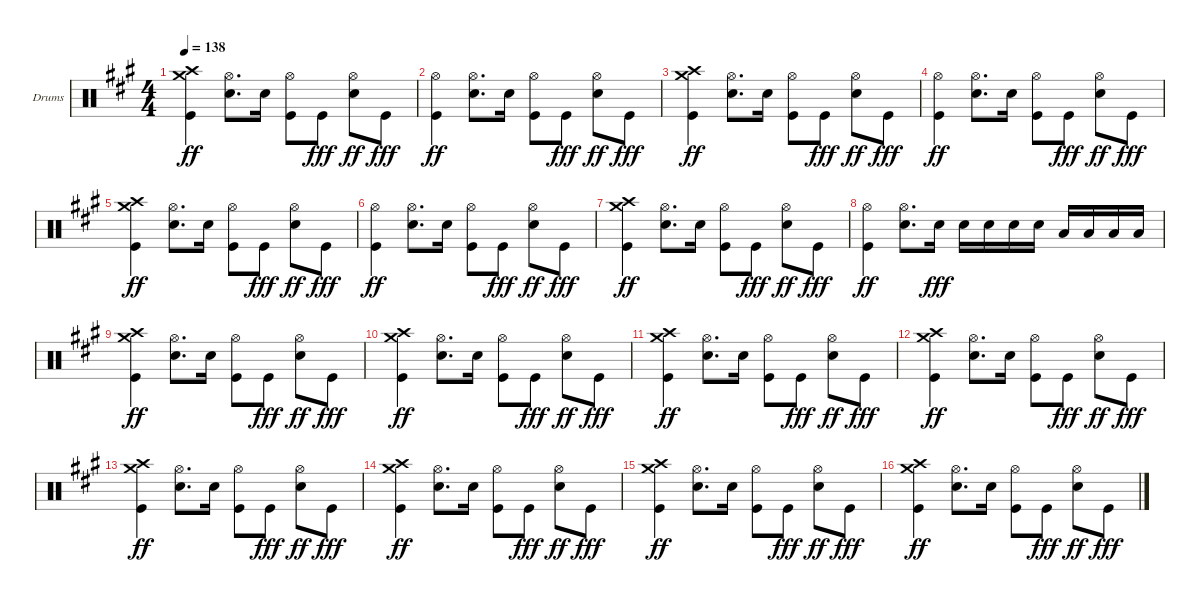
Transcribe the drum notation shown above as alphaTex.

\defaultSystemsLayout 4
\bracketExtendMode groupsimilarinstruments
\firstSystemTrackNameOrientation horizontal
\otherSystemsTrackNameOrientation horizontal
\track ("Drumkit" "Drums") {instrument percussion}
\staff {score}
\articulation defaults
\ts (4 4)
\tempo 138
\clef neutral
\scale
1.05801
\ks a
("Crash high (hit)" "Crash medium (hit)" "Kick (hit)").4{dy ff} ("Hi-Hat (open)" "Snare (hit) 2").8{d} "Snare (hit) 2".16 ("Hi-Hat (open)" "Kick (hit)").8 "Kick (hit)".8{dy fff} ("Hi-Hat (open)" "Snare (hit) 2").8{dy ff} "Kick (hit)".8{dy fff} |
\scale
0.941992 ("Hi-Hat (open)" "Kick (hit)").4{dy ff} ("Hi-Hat (open)" "Snare (hit) 2").8{d} "Snare (hit) 2".16 ("Hi-Hat (open)" "Kick (hit)").8 "Kick (hit)".8{dy fff} ("Hi-Hat (open)" "Snare (hit) 2").8{dy ff} "Kick (hit)".8{dy fff} |
\scale
1.05801 ("Crash high (hit)" "Crash medium (hit)" "Kick (hit)").4{dy ff} ("Hi-Hat (open)" "Snare (hit) 2").8{d} "Snare (hit) 2".16 ("Hi-Hat (open)" "Kick (hit)").8 "Kick (hit)".8{dy fff} ("Hi-Hat (open)" "Snare (hit) 2").8{dy ff} "Kick (hit)".8{dy fff} |
\scale
0.941992 ("Hi-Hat (open)" "Kick (hit)").4{dy ff} ("Hi-Hat (open)" "Snare (hit) 2").8{d} "Snare (hit) 2".16 ("Hi-Hat (open)" "Kick (hit)").8 "Kick (hit)".8{dy fff} ("Hi-Hat (open)" "Snare (hit) 2").8{dy ff} "Kick (hit)".8{dy fff} |
\scale
1.05801 ("Crash high (hit)" "Crash medium (hit)" "Kick (hit)").4{dy ff} ("Hi-Hat (open)" "Snare (hit) 2").8{d} "Snare (hit) 2".16 ("Hi-Hat (open)" "Kick (hit)").8 "Kick (hit)".8{dy fff} ("Hi-Hat (open)" "Snare (hit) 2").8{dy ff} "Kick (hit)".8{dy fff} |
\scale
0.941992 ("Hi-Hat (open)" "Kick (hit)").4{dy ff} ("Hi-Hat (open)" "Snare (hit) 2").8{d} "Snare (hit) 2".16 ("Hi-Hat (open)" "Kick (hit)").8 "Kick (hit)".8{dy fff} ("Hi-Hat (open)" "Snare (hit) 2").8{dy ff} "Kick (hit)".8{dy fff} |
\scale
1.05801 ("Crash high (hit)" "Crash medium (hit)" "Kick (hit)").4{dy ff} ("Hi-Hat (open)" "Snare (hit) 2").8{d} "Snare (hit) 2".16 ("Hi-Hat (open)" "Kick (hit)").8 "Kick (hit)".8{dy fff} ("Hi-Hat (open)" "Snare (hit) 2").8{dy ff} "Kick (hit)".8{dy fff} |
\scale
0.941992 ("Hi-Hat (open)" "Kick (hit)").4{dy ff} ("Hi-Hat (open)" "Snare (hit) 2").8{d} "Snare (hit) 2".16{dy fff} "Snare (hit) 2".16 "Snare (hit) 2".16 "Snare (hit) 2".16 "Snare (hit) 2".16 "Low Tom (hit)".16 "Low Tom (hit)".16 "Low Tom (hit)".16 "Low Tom (hit)".16 |
\scale
1.05801 ("Crash medium (hit)" "Crash high (hit)" "Kick (hit)").4{dy ff} ("Hi-Hat (open)" "Snare (hit) 2").8{d} "Snare (hit) 2".16 ("Hi-Hat (open)" "Kick (hit)").8 "Kick (hit)".8{dy fff} ("Hi-Hat (open)" "Snare (hit) 2").8{dy ff} "Kick (hit)".8{dy fff} |
\scale
0.941992 ("Crash medium (hit)" "Crash high (hit)" "Kick (hit)").4{dy ff} ("Hi-Hat (open)" "Snare (hit) 2").8{d} "Snare (hit) 2".16 ("Hi-Hat (open)" "Kick (hit)").8 "Kick (hit)".8{dy fff} ("Hi-Hat (open)" "Snare (hit) 2").8{dy ff} "Kick (hit)".8{dy fff} |
\scale
1.05801 ("Crash medium (hit)" "Crash high (hit)" "Kick (hit)").4{dy ff} ("Hi-Hat (open)" "Snare (hit) 2").8{d} "Snare (hit) 2".16 ("Hi-Hat (open)" "Kick (hit)").8 "Kick (hit)".8{dy fff} ("Hi-Hat (open)" "Snare (hit) 2").8{dy ff} "Kick (hit)".8{dy fff} |
\scale
0.941992 ("Crash medium (hit)" "Crash high (hit)" "Kick (hit)").4{dy ff} ("Hi-Hat (open)" "Snare (hit) 2").8{d} "Snare (hit) 2".16 ("Hi-Hat (open)" "Kick (hit)").8 "Kick (hit)".8{dy fff} ("Hi-Hat (open)" "Snare (hit) 2").8{dy ff} "Kick (hit)".8{dy fff} |
\scale
1.05801 ("Crash high (hit)" "Crash medium (hit)" "Kick (hit)").4{dy ff} ("Hi-Hat (open)" "Snare (hit) 2").8{d} "Snare (hit) 2".16 ("Hi-Hat (open)" "Kick (hit)").8 "Kick (hit)".8{dy fff} ("Hi-Hat (open)" "Snare (hit) 2").8{dy ff} "Kick (hit)".8{dy fff} |
\scale
0.941992 ("Crash high (hit)" "Crash medium (hit)" "Kick (hit)").4{dy ff} ("Hi-Hat (open)" "Snare (hit) 2").8{d} "Snare (hit) 2".16 ("Hi-Hat (open)" "Kick (hit)").8 "Kick (hit)".8{dy fff} ("Hi-Hat (open)" "Snare (hit) 2").8{dy ff} "Kick (hit)".8{dy fff} |
\scale
1.05801 ("Crash high (hit)" "Crash medium (hit)" "Kick (hit)").4{dy ff} ("Hi-Hat (open)" "Snare (hit) 2").8{d} "Snare (hit) 2".16 ("Hi-Hat (open)" "Kick (hit)").8 "Kick (hit)".8{dy fff} ("Hi-Hat (open)" "Snare (hit) 2").8{dy ff} "Kick (hit)".8{dy fff} |
\scale
0.941992 ("Crash high (hit)" "Crash medium (hit)" "Kick (hit)").4{dy ff} ("Hi-Hat (open)" "Snare (hit) 2").8{d} "Snare (hit) 2".16 ("Hi-Hat (open)" "Kick (hit)").8 "Kick (hit)".8{dy fff} ("Hi-Hat (open)" "Snare (hit) 2").8{dy ff} "Kick (hit)".8{dy fff}
